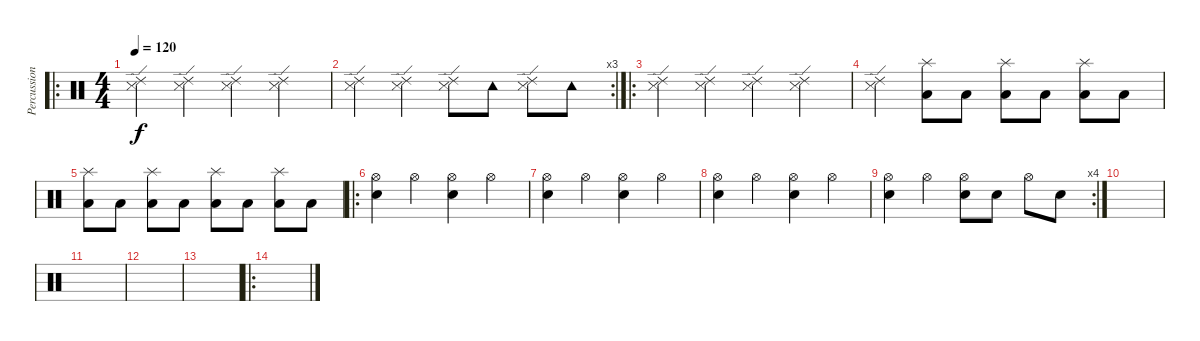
\track ("Percussion" "Percussion") {instrument percussion}
\staff {score}
\articulation defaults
\ro
\ts (4 4)
\tempo 120
\clef neutral
\ks c
("Ride (edge) 2" "Snare (side stick) 3").4{dy f} ("Ride (edge) 2" "Snare (side stick) 3").4 ("Ride (edge) 2" "Snare (side stick) 3").4 ("Ride (edge) 2" "Snare (side stick) 3").4 |
\rc 3
("Ride (edge) 2" "Snare (side stick) 3").4 ("Ride (edge) 2" "Snare (side stick) 3").4 ("Ride (edge) 2" "Snare (side stick) 3").8 "Tambourine (hit)".8 ("Ride (edge) 2" "Snare (side stick) 3").8 "Tambourine (hit)".8 |
\ro
("Ride (edge) 2" "Snare (side stick) 3").4 ("Ride (edge) 2" "Snare (side stick) 3").4 ("Ride (edge) 2" "Snare (side stick) 3").4 ("Ride (edge) 2" "Snare (side stick) 3").4 |
("Ride (edge) 2" "Snare (side stick) 3").4 ("Splash (hit)" "Low Floor Tom (hit)").8{volume 5} "Low Floor Tom (hit)".8{volume 6} ("Splash (hit)" "Low Floor Tom (hit)").8{volume 7} "Low Floor Tom (hit)".8{volume 7} ("Splash (hit)" "Low Floor Tom (hit)").8{volume 8} "Low Floor Tom (hit)".8{volume 8} |
("Splash (hit)" "Low Floor Tom (hit)").8{volume 9} "Low Floor Tom (hit)".8{volume 10} ("Splash (hit)" "Low Floor Tom (hit)").8{volume 10} "Low Floor Tom (hit)".8{volume 11} ("Splash (hit)" "Low Floor Tom (hit)").8{volume 12} "Low Floor Tom (hit)".8{volume 13} ("Splash (hit)" "Low Floor Tom (hit)").8{volume 14} "Low Floor Tom (hit)".8{volume 14} |
\ro
("Hi-Hat (open)" "Snare (hit) 2").4{volume 12} "Hi-Hat (open)".4 ("Hi-Hat (open)" "Snare (hit) 2").4 "Hi-Hat (open)".4 |
("Hi-Hat (open)" "Snare (hit) 2").4{volume 12} "Hi-Hat (open)".4 ("Hi-Hat (open)" "Snare (hit) 2").4 "Hi-Hat (open)".4 |
("Hi-Hat (open)" "Snare (hit) 2").4{volume 12} "Hi-Hat (open)".4 ("Hi-Hat (open)" "Snare (hit) 2").4 "Hi-Hat (open)".4 |
\rc 4
("Hi-Hat (open)" "Snare (hit) 2").4{volume 12} "Hi-Hat (open)".4 ("Hi-Hat (open)" "Snare (hit) 2").8 "Snare (hit) 2".8 "Hi-Hat (open)".8 "Snare (hit) 2".8 |
|
|
|
|
\ro
